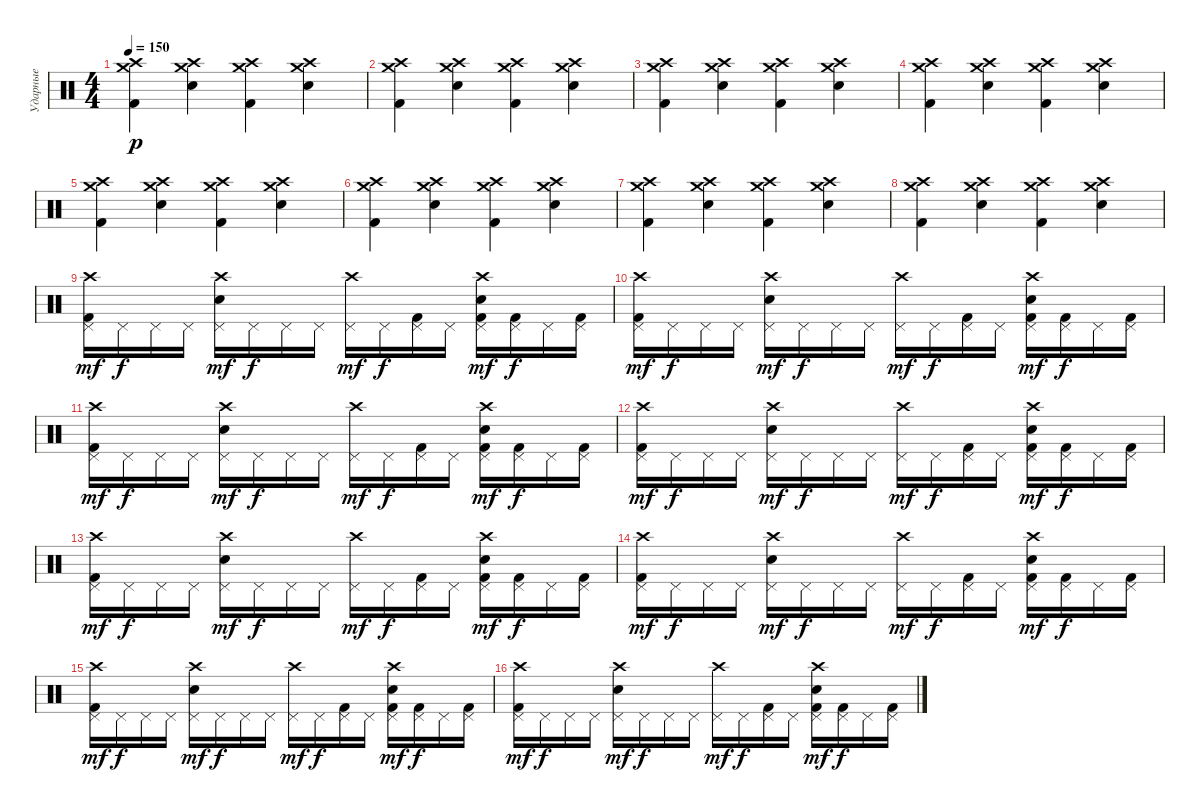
\track ("Ударные" "Ударные") {instrument percussion}
\staff {score}
\articulation defaults
\ts (4 4)
\tempo 150
\clef neutral
\ks c
("Crash medium (hit)" "Crash high (hit)" "Kick (hit) 2").4{dy p} ("Electric Snare (hit)" "Crash medium (hit)" "Crash high (hit)").4 ("Kick (hit) 2" "Crash medium (hit)" "Crash high (hit)").4 ("Electric Snare (hit)" "Crash medium (hit)" "Crash high (hit)").4 |
("Crash medium (hit)" "Crash high (hit)" "Kick (hit) 2").4 ("Electric Snare (hit)" "Crash medium (hit)" "Crash high (hit)").4 ("Kick (hit) 2" "Crash medium (hit)" "Crash high (hit)").4 ("Electric Snare (hit)" "Crash medium (hit)" "Crash high (hit)").4 |
("Crash medium (hit)" "Crash high (hit)" "Kick (hit) 2").4 ("Electric Snare (hit)" "Crash medium (hit)" "Crash high (hit)").4 ("Kick (hit) 2" "Crash medium (hit)" "Crash high (hit)").4 ("Electric Snare (hit)" "Crash medium (hit)" "Crash high (hit)").4 |
("Crash medium (hit)" "Crash high (hit)" "Kick (hit) 2").4 ("Electric Snare (hit)" "Crash medium (hit)" "Crash high (hit)").4 ("Kick (hit) 2" "Crash medium (hit)" "Crash high (hit)").4 ("Electric Snare (hit)" "Crash medium (hit)" "Crash high (hit)").4 |
("Crash medium (hit)" "Crash high (hit)" "Kick (hit) 2").4 ("Electric Snare (hit)" "Crash medium (hit)" "Crash high (hit)").4 ("Kick (hit) 2" "Crash medium (hit)" "Crash high (hit)").4 ("Electric Snare (hit)" "Crash medium (hit)" "Crash high (hit)").4 |
("Crash medium (hit)" "Crash high (hit)" "Kick (hit) 2").4 ("Electric Snare (hit)" "Crash medium (hit)" "Crash high (hit)").4 ("Kick (hit) 2" "Crash medium (hit)" "Crash high (hit)").4 ("Electric Snare (hit)" "Crash medium (hit)" "Crash high (hit)").4 |
("Crash medium (hit)" "Crash high (hit)" "Kick (hit) 2").4 ("Electric Snare (hit)" "Crash medium (hit)" "Crash high (hit)").4 ("Kick (hit) 2" "Crash medium (hit)" "Crash high (hit)").4 ("Electric Snare (hit)" "Crash medium (hit)" "Crash high (hit)").4 |
("Crash medium (hit)" "Crash high (hit)" "Kick (hit) 2").4 ("Electric Snare (hit)" "Crash medium (hit)" "Crash high (hit)").4 ("Kick (hit) 2" "Crash medium (hit)" "Crash high (hit)").4 ("Electric Snare (hit)" "Crash medium (hit)" "Crash high (hit)").4 |
("Crash high (hit)" "Pedal Hi-Hat (hit)" "Kick (hit) 2").16{dy mf} "Pedal Hi-Hat (hit)".16{dy f} "Pedal Hi-Hat (hit)".16 "Pedal Hi-Hat (hit)".16 ("Crash high (hit)" "Pedal Hi-Hat (hit)" "Electric Snare (hit)").16{dy mf} "Pedal Hi-Hat (hit)".16{dy f} "Pedal Hi-Hat (hit)".16 "Pedal Hi-Hat (hit)".16 ("Crash high (hit)" "Pedal Hi-Hat (hit)").16{dy mf} "Pedal Hi-Hat (hit)".16{dy f} ("Pedal Hi-Hat (hit)" "Kick (hit) 2").16 "Pedal Hi-Hat (hit)".16 ("Crash high (hit)" "Pedal Hi-Hat (hit)" "Electric Snare (hit)" "Kick (hit) 2").16{dy mf} ("Pedal Hi-Hat (hit)" "Kick (hit) 2").16{dy f} "Pedal Hi-Hat (hit)".16 ("Pedal Hi-Hat (hit)" "Kick (hit) 2").16 |
("Pedal Hi-Hat (hit)" "Kick (hit) 2" "Crash high (hit)").16{dy mf} "Pedal Hi-Hat (hit)".16{dy f} "Pedal Hi-Hat (hit)".16 "Pedal Hi-Hat (hit)".16 ("Pedal Hi-Hat (hit)" "Electric Snare (hit)" "Crash high (hit)").16{dy mf} "Pedal Hi-Hat (hit)".16{dy f} "Pedal Hi-Hat (hit)".16 "Pedal Hi-Hat (hit)".16 ("Pedal Hi-Hat (hit)" "Crash high (hit)").16{dy mf} "Pedal Hi-Hat (hit)".16{dy f} ("Pedal Hi-Hat (hit)" "Kick (hit) 2").16 "Pedal Hi-Hat (hit)".16 ("Pedal Hi-Hat (hit)" "Electric Snare (hit)" "Kick (hit) 2" "Crash high (hit)").16{dy mf} ("Pedal Hi-Hat (hit)" "Kick (hit) 2").16{dy f} "Pedal Hi-Hat (hit)".16 ("Pedal Hi-Hat (hit)" "Kick (hit) 2").16 |
("Pedal Hi-Hat (hit)" "Kick (hit) 2" "Crash high (hit)").16{dy mf} "Pedal Hi-Hat (hit)".16{dy f} "Pedal Hi-Hat (hit)".16 "Pedal Hi-Hat (hit)".16 ("Pedal Hi-Hat (hit)" "Electric Snare (hit)" "Crash high (hit)").16{dy mf} "Pedal Hi-Hat (hit)".16{dy f} "Pedal Hi-Hat (hit)".16 "Pedal Hi-Hat (hit)".16 ("Pedal Hi-Hat (hit)" "Crash high (hit)").16{dy mf} "Pedal Hi-Hat (hit)".16{dy f} ("Pedal Hi-Hat (hit)" "Kick (hit) 2").16 "Pedal Hi-Hat (hit)".16 ("Pedal Hi-Hat (hit)" "Electric Snare (hit)" "Kick (hit) 2" "Crash high (hit)").16{dy mf} ("Pedal Hi-Hat (hit)" "Kick (hit) 2").16{dy f} "Pedal Hi-Hat (hit)".16 ("Pedal Hi-Hat (hit)" "Kick (hit) 2").16 |
("Crash high (hit)" "Pedal Hi-Hat (hit)" "Kick (hit) 2").16{dy mf} "Pedal Hi-Hat (hit)".16{dy f} "Pedal Hi-Hat (hit)".16 "Pedal Hi-Hat (hit)".16 ("Crash high (hit)" "Pedal Hi-Hat (hit)" "Electric Snare (hit)").16{dy mf} "Pedal Hi-Hat (hit)".16{dy f} "Pedal Hi-Hat (hit)".16 "Pedal Hi-Hat (hit)".16 ("Crash high (hit)" "Pedal Hi-Hat (hit)").16{dy mf} "Pedal Hi-Hat (hit)".16{dy f} ("Pedal Hi-Hat (hit)" "Kick (hit) 2").16 "Pedal Hi-Hat (hit)".16 ("Crash high (hit)" "Pedal Hi-Hat (hit)" "Electric Snare (hit)" "Kick (hit) 2").16{dy mf} ("Pedal Hi-Hat (hit)" "Kick (hit) 2").16{dy f} "Pedal Hi-Hat (hit)".16 ("Pedal Hi-Hat (hit)" "Kick (hit) 2").16 |
("Pedal Hi-Hat (hit)" "Kick (hit) 2" "Crash high (hit)").16{dy mf} "Pedal Hi-Hat (hit)".16{dy f} "Pedal Hi-Hat (hit)".16 "Pedal Hi-Hat (hit)".16 ("Pedal Hi-Hat (hit)" "Electric Snare (hit)" "Crash high (hit)").16{dy mf} "Pedal Hi-Hat (hit)".16{dy f} "Pedal Hi-Hat (hit)".16 "Pedal Hi-Hat (hit)".16 ("Pedal Hi-Hat (hit)" "Crash high (hit)").16{dy mf} "Pedal Hi-Hat (hit)".16{dy f} ("Pedal Hi-Hat (hit)" "Kick (hit) 2").16 "Pedal Hi-Hat (hit)".16 ("Pedal Hi-Hat (hit)" "Electric Snare (hit)" "Kick (hit) 2" "Crash high (hit)").16{dy mf} ("Pedal Hi-Hat (hit)" "Kick (hit) 2").16{dy f} "Pedal Hi-Hat (hit)".16 ("Pedal Hi-Hat (hit)" "Kick (hit) 2").16 |
("Crash high (hit)" "Pedal Hi-Hat (hit)" "Kick (hit) 2").16{dy mf} "Pedal Hi-Hat (hit)".16{dy f} "Pedal Hi-Hat (hit)".16 "Pedal Hi-Hat (hit)".16 ("Crash high (hit)" "Pedal Hi-Hat (hit)" "Electric Snare (hit)").16{dy mf} "Pedal Hi-Hat (hit)".16{dy f} "Pedal Hi-Hat (hit)".16 "Pedal Hi-Hat (hit)".16 ("Crash high (hit)" "Pedal Hi-Hat (hit)").16{dy mf} "Pedal Hi-Hat (hit)".16{dy f} ("Pedal Hi-Hat (hit)" "Kick (hit) 2").16 "Pedal Hi-Hat (hit)".16 ("Crash high (hit)" "Pedal Hi-Hat (hit)" "Electric Snare (hit)" "Kick (hit) 2").16{dy mf} ("Pedal Hi-Hat (hit)" "Kick (hit) 2").16{dy f} "Pedal Hi-Hat (hit)".16 ("Pedal Hi-Hat (hit)" "Kick (hit) 2").16 |
("Crash high (hit)" "Pedal Hi-Hat (hit)" "Kick (hit) 2").16{dy mf} "Pedal Hi-Hat (hit)".16{dy f} "Pedal Hi-Hat (hit)".16 "Pedal Hi-Hat (hit)".16 ("Crash high (hit)" "Pedal Hi-Hat (hit)" "Electric Snare (hit)").16{dy mf} "Pedal Hi-Hat (hit)".16{dy f} "Pedal Hi-Hat (hit)".16 "Pedal Hi-Hat (hit)".16 ("Crash high (hit)" "Pedal Hi-Hat (hit)").16{dy mf} "Pedal Hi-Hat (hit)".16{dy f} ("Pedal Hi-Hat (hit)" "Kick (hit) 2").16 "Pedal Hi-Hat (hit)".16 ("Crash high (hit)" "Pedal Hi-Hat (hit)" "Electric Snare (hit)" "Kick (hit) 2").16{dy mf} ("Pedal Hi-Hat (hit)" "Kick (hit) 2").16{dy f} "Pedal Hi-Hat (hit)".16 ("Pedal Hi-Hat (hit)" "Kick (hit) 2").16 |
("Crash high (hit)" "Pedal Hi-Hat (hit)" "Kick (hit) 2").16{dy mf} "Pedal Hi-Hat (hit)".16{dy f} "Pedal Hi-Hat (hit)".16 "Pedal Hi-Hat (hit)".16 ("Crash high (hit)" "Pedal Hi-Hat (hit)" "Electric Snare (hit)").16{dy mf} "Pedal Hi-Hat (hit)".16{dy f} "Pedal Hi-Hat (hit)".16 "Pedal Hi-Hat (hit)".16 ("Crash high (hit)" "Pedal Hi-Hat (hit)").16{dy mf} "Pedal Hi-Hat (hit)".16{dy f} ("Pedal Hi-Hat (hit)" "Kick (hit) 2").16 "Pedal Hi-Hat (hit)".16 ("Crash high (hit)" "Pedal Hi-Hat (hit)" "Electric Snare (hit)" "Kick (hit) 2").16{dy mf} ("Pedal Hi-Hat (hit)" "Kick (hit) 2").16{dy f} "Pedal Hi-Hat (hit)".16 ("Pedal Hi-Hat (hit)" "Kick (hit) 2").16
